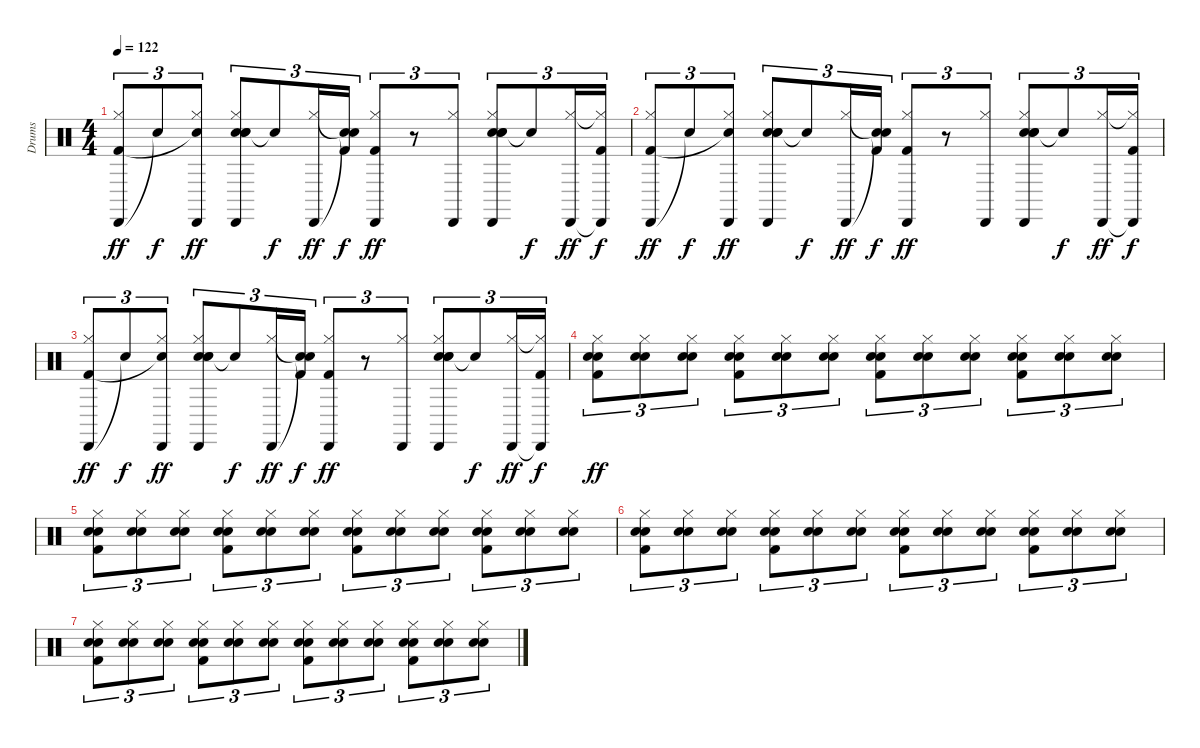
\track ("Drums" "Drums") {instrument percussion}
\staff {score}
\articulation defaults
\ts (4 4)
\tempo 122
\clef neutral
\ks c
("Cabasa (hit)" "Hi-Hat (closed)" "Kick (hit) 2").8{tu (3 2) dy ff} "Snare (hit)"{t}.8{tu (3 2) dy f} ("Cabasa (hit)" "Hi-Hat (closed)" "Snare (hit)"{t}).8{tu (3 2) dy ff} ("Hand Clap (hit)" "Cabasa (hit)" "Hi-Hat (closed)" "Snare (hit) 2" "Hand Clap (hit)").8{tu (3 2)} "Snare (hit)"{t}.8{tu (3 2) dy f} ("Cabasa (hit)" "Hi-Hat (closed)").16{tu (3 2) dy ff} ("Snare (hit)"{t} "Snare (hit)"{t} "Kick (hit) 2").16{tu (3 2) dy f} ("Cabasa (hit)" "Hi-Hat (closed)" "Kick (hit) 2").8{tu (3 2) dy ff} r.8{tu (3 2)} ("Cabasa (hit)" "Hi-Hat (closed)").8{tu (3 2)} ("Hand Clap (hit)" "Cabasa (hit)" "Hi-Hat (closed)" "Snare (hit) 2" "Hand Clap (hit)").8{tu (3 2)} "Snare (hit)"{t}.8{tu (3 2) dy f} ("Cabasa (hit)" "Hi-Hat (closed)").16{tu (3 2) dy ff} ("Cabasa (hit)"{t} "Hi-Hat (closed)"{t} "Kick (hit) 2").16{tu (3 2) dy f} |
("Cabasa (hit)" "Hi-Hat (closed)" "Kick (hit) 2").8{tu (3 2) dy ff} "Snare (hit)"{t}.8{tu (3 2) dy f} ("Cabasa (hit)" "Hi-Hat (closed)" "Snare (hit)"{t}).8{tu (3 2) dy ff} ("Hand Clap (hit)" "Cabasa (hit)" "Hi-Hat (closed)" "Snare (hit) 2" "Hand Clap (hit)").8{tu (3 2)} "Snare (hit)"{t}.8{tu (3 2) dy f} ("Cabasa (hit)" "Hi-Hat (closed)").16{tu (3 2) dy ff} ("Snare (hit)"{t} "Snare (hit)"{t} "Kick (hit) 2").16{tu (3 2) dy f} ("Cabasa (hit)" "Hi-Hat (closed)" "Kick (hit) 2").8{tu (3 2) dy ff} r.8{tu (3 2)} ("Cabasa (hit)" "Hi-Hat (closed)").8{tu (3 2)} ("Hand Clap (hit)" "Cabasa (hit)" "Hi-Hat (closed)" "Snare (hit) 2" "Hand Clap (hit)").8{tu (3 2)} "Snare (hit)"{t}.8{tu (3 2) dy f} ("Cabasa (hit)" "Hi-Hat (closed)").16{tu (3 2) dy ff} ("Cabasa (hit)"{t} "Hi-Hat (closed)"{t} "Kick (hit) 2").16{tu (3 2) dy f} |
("Cabasa (hit)" "Hi-Hat (closed)" "Kick (hit) 2").8{tu (3 2) dy ff} "Snare (hit)"{t}.8{tu (3 2) dy f} ("Cabasa (hit)" "Hi-Hat (closed)" "Snare (hit)"{t}).8{tu (3 2) dy ff} ("Hand Clap (hit)" "Cabasa (hit)" "Hi-Hat (closed)" "Snare (hit) 2" "Hand Clap (hit)").8{tu (3 2)} "Snare (hit)"{t}.8{tu (3 2) dy f} ("Cabasa (hit)" "Hi-Hat (closed)").16{tu (3 2) dy ff} ("Snare (hit)"{t} "Snare (hit)"{t} "Kick (hit) 2").16{tu (3 2) dy f} ("Cabasa (hit)" "Hi-Hat (closed)" "Kick (hit) 2").8{tu (3 2) dy ff} r.8{tu (3 2)} ("Cabasa (hit)" "Hi-Hat (closed)").8{tu (3 2)} ("Hand Clap (hit)" "Cabasa (hit)" "Hi-Hat (closed)" "Snare (hit) 2" "Hand Clap (hit)").8{tu (3 2)} "Snare (hit)"{t}.8{tu (3 2) dy f} ("Cabasa (hit)" "Hi-Hat (closed)").16{tu (3 2) dy ff} ("Cabasa (hit)"{t} "Hi-Hat (closed)"{t} "Kick (hit) 2").16{tu (3 2) dy f} |
("Hand Clap (hit)" "Hi-Hat (closed)" "Snare (hit) 2" "Kick (hit) 2").8{tu (3 2) dy ff} ("Hand Clap (hit)" "Hi-Hat (closed)" "Snare (hit) 2").8{tu (3 2)} ("Hand Clap (hit)" "Hi-Hat (closed)" "Snare (hit) 2").8{tu (3 2)} ("Hand Clap (hit)" "Hi-Hat (closed)" "Snare (hit) 2" "Kick (hit) 2").8{tu (3 2)} ("Hand Clap (hit)" "Hi-Hat (closed)" "Snare (hit) 2").8{tu (3 2)} ("Hand Clap (hit)" "Hi-Hat (closed)" "Snare (hit) 2").8{tu (3 2)} ("Hand Clap (hit)" "Hi-Hat (closed)" "Snare (hit) 2" "Kick (hit) 2").8{tu (3 2)} ("Hand Clap (hit)" "Hi-Hat (closed)" "Snare (hit) 2").8{tu (3 2)} ("Hand Clap (hit)" "Hi-Hat (closed)" "Snare (hit) 2").8{tu (3 2)} ("Hand Clap (hit)" "Hi-Hat (closed)" "Snare (hit) 2" "Kick (hit) 2").8{tu (3 2)} ("Hand Clap (hit)" "Hi-Hat (closed)" "Snare (hit) 2").8{tu (3 2)} ("Hand Clap (hit)" "Hi-Hat (closed)" "Snare (hit) 2").8{tu (3 2)} |
("Hand Clap (hit)" "Hi-Hat (closed)" "Snare (hit) 2" "Kick (hit) 2").8{tu (3 2)} ("Hand Clap (hit)" "Hi-Hat (closed)" "Snare (hit) 2").8{tu (3 2)} ("Hand Clap (hit)" "Hi-Hat (closed)" "Snare (hit) 2").8{tu (3 2)} ("Hand Clap (hit)" "Hi-Hat (closed)" "Snare (hit) 2" "Kick (hit) 2").8{tu (3 2)} ("Hand Clap (hit)" "Hi-Hat (closed)" "Snare (hit) 2").8{tu (3 2)} ("Hand Clap (hit)" "Hi-Hat (closed)" "Snare (hit) 2").8{tu (3 2)} ("Hand Clap (hit)" "Hi-Hat (closed)" "Snare (hit) 2" "Kick (hit) 2").8{tu (3 2)} ("Hand Clap (hit)" "Hi-Hat (closed)" "Snare (hit) 2").8{tu (3 2)} ("Hand Clap (hit)" "Hi-Hat (closed)" "Snare (hit) 2").8{tu (3 2)} ("Hand Clap (hit)" "Hi-Hat (closed)" "Snare (hit) 2" "Kick (hit) 2").8{tu (3 2)} ("Hand Clap (hit)" "Hi-Hat (closed)" "Snare (hit) 2").8{tu (3 2)} ("Hand Clap (hit)" "Hi-Hat (closed)" "Snare (hit) 2").8{tu (3 2)} |
("Hand Clap (hit)" "Hi-Hat (closed)" "Snare (hit) 2" "Kick (hit) 2").8{tu (3 2)} ("Hand Clap (hit)" "Hi-Hat (closed)" "Snare (hit) 2").8{tu (3 2)} ("Hand Clap (hit)" "Hi-Hat (closed)" "Snare (hit) 2").8{tu (3 2)} ("Hand Clap (hit)" "Hi-Hat (closed)" "Snare (hit) 2" "Kick (hit) 2").8{tu (3 2)} ("Hand Clap (hit)" "Hi-Hat (closed)" "Snare (hit) 2").8{tu (3 2)} ("Hand Clap (hit)" "Hi-Hat (closed)" "Snare (hit) 2").8{tu (3 2)} ("Hand Clap (hit)" "Hi-Hat (closed)" "Snare (hit) 2" "Kick (hit) 2").8{tu (3 2)} ("Hand Clap (hit)" "Hi-Hat (closed)" "Snare (hit) 2").8{tu (3 2)} ("Hand Clap (hit)" "Hi-Hat (closed)" "Snare (hit) 2").8{tu (3 2)} ("Hand Clap (hit)" "Hi-Hat (closed)" "Snare (hit) 2" "Kick (hit) 2").8{tu (3 2)} ("Hand Clap (hit)" "Hi-Hat (closed)" "Snare (hit) 2").8{tu (3 2)} ("Hand Clap (hit)" "Hi-Hat (closed)" "Snare (hit) 2").8{tu (3 2)} |
("Hand Clap (hit)" "Hi-Hat (closed)" "Snare (hit) 2" "Kick (hit) 2").8{tu (3 2)} ("Hand Clap (hit)" "Hi-Hat (closed)" "Snare (hit) 2").8{tu (3 2)} ("Hand Clap (hit)" "Hi-Hat (closed)" "Snare (hit) 2").8{tu (3 2)} ("Hand Clap (hit)" "Hi-Hat (closed)" "Snare (hit) 2" "Kick (hit) 2").8{tu (3 2)} ("Hand Clap (hit)" "Hi-Hat (closed)" "Snare (hit) 2").8{tu (3 2)} ("Hand Clap (hit)" "Hi-Hat (closed)" "Snare (hit) 2").8{tu (3 2)} ("Hand Clap (hit)" "Hi-Hat (closed)" "Snare (hit) 2" "Kick (hit) 2").8{tu (3 2)} ("Hand Clap (hit)" "Hi-Hat (closed)" "Snare (hit) 2").8{tu (3 2)} ("Hand Clap (hit)" "Hi-Hat (closed)" "Snare (hit) 2").8{tu (3 2)} ("Hand Clap (hit)" "Hi-Hat (closed)" "Snare (hit) 2" "Kick (hit) 2").8{tu (3 2)} ("Hand Clap (hit)" "Hi-Hat (closed)" "Snare (hit) 2").8{tu (3 2)} ("Hand Clap (hit)" "Hi-Hat (closed)" "Snare (hit) 2").8{tu (3 2)}
